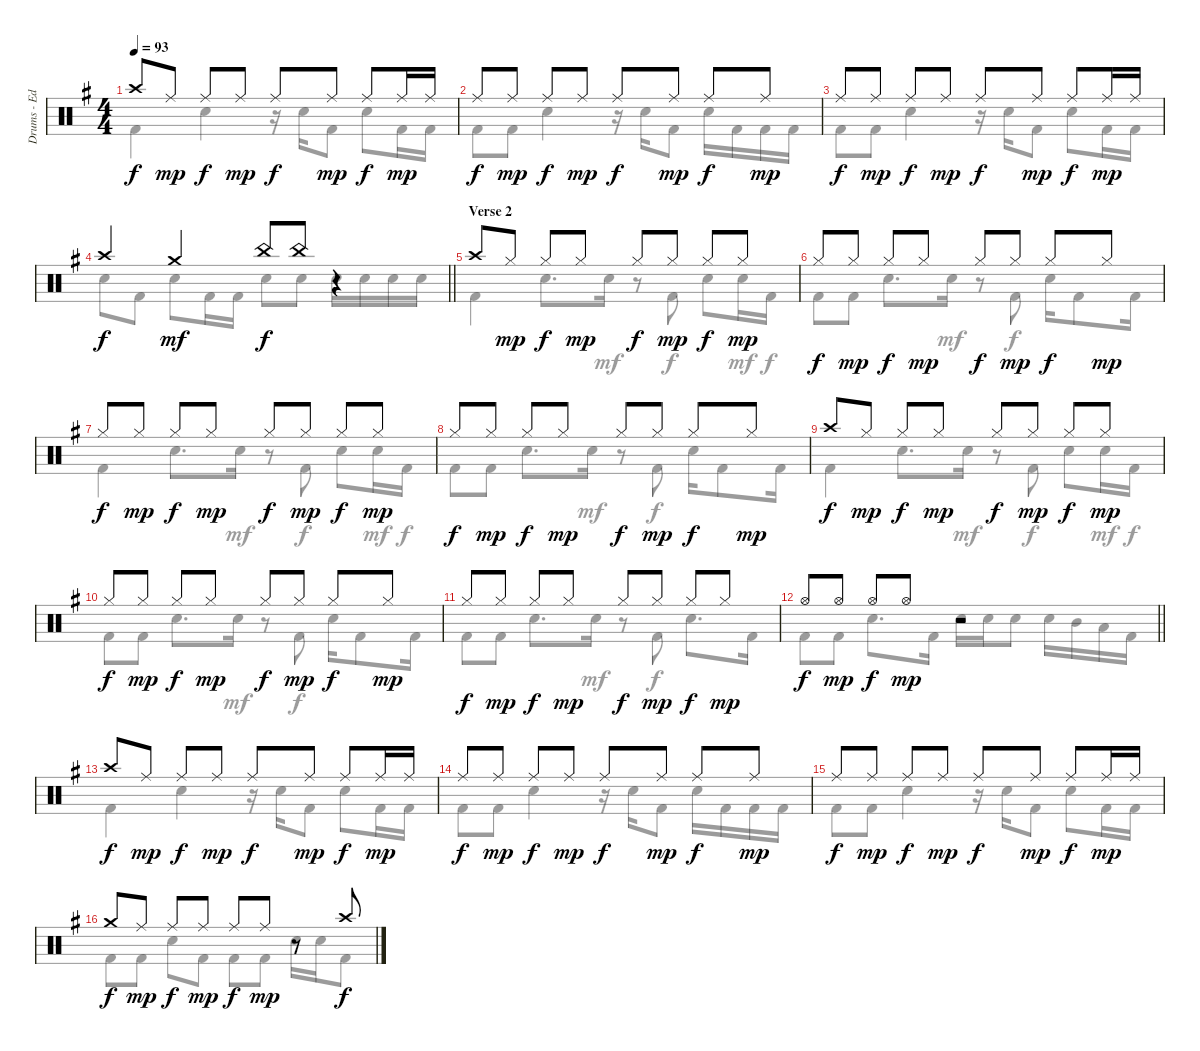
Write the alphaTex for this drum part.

\track ("Drums - Ed Warby" "Drums - Ed") {instrument percussion}
\staff {score}
\articulation defaults
\voice
\ts (4 4)
\tempo 93
\clef neutral
\ks eminor "Crash high (hit)".8{dy f} "Ride (middle)".8{dy mp} "Ride (middle)".8{dy f} "Ride (middle)".8{dy mp} "Ride (middle)".8{dy f} "Ride (middle)".8{dy mp} "Ride (middle)".8{dy f} "Ride (middle)".16{dy mp} "Ride (middle)".16
|
"Ride (middle)".8{dy f} "Ride (middle)".8{dy mp} "Ride (middle)".8{dy f} "Ride (middle)".8{dy mp} "Ride (middle)".8{dy f} "Ride (middle)".8{dy mp} "Ride (middle)".8{dy f} "Ride (middle)".8{dy mp} |
"Ride (middle)".8{dy f} "Ride (middle)".8{dy mp} "Ride (middle)".8{dy f} "Ride (middle)".8{dy mp} "Ride (middle)".8{dy f} "Ride (middle)".8{dy mp} "Ride (middle)".8{dy f} "Ride (middle)".16{dy mp} "Ride (middle)".16 |
\barLineRight lightlight "Crash high (hit)".4{dy f} "Crash medium (hit)".4{dy mf} "China (hit)".8{dy f} "China (hit)".8
r.4 |
\section ("" "Verse 2")
"Crash high (hit)".8 "Hi-Hat (closed)".8{dy mp} "Hi-Hat (closed)".8{dy f} "Hi-Hat (closed)".8{dy mp} "Hi-Hat (closed)".8{dy f} "Hi-Hat (closed)".8{dy mp} "Hi-Hat (closed)".8{dy f} "Hi-Hat (closed)".8{dy mp} |
"Hi-Hat (closed)".8{dy f} "Hi-Hat (closed)".8{dy mp} "Hi-Hat (closed)".8{dy f} "Hi-Hat (closed)".8{dy mp} "Hi-Hat (closed)".8{dy f} "Hi-Hat (closed)".8{dy mp} "Hi-Hat (closed)".8{dy f} "Hi-Hat (closed)".8{dy mp} |
"Hi-Hat (closed)".8{dy f} "Hi-Hat (closed)".8{dy mp} "Hi-Hat (closed)".8{dy f} "Hi-Hat (closed)".8{dy mp} "Hi-Hat (closed)".8{dy f} "Hi-Hat (closed)".8{dy mp} "Hi-Hat (closed)".8{dy f} "Hi-Hat (closed)".8{dy mp} |
"Hi-Hat (closed)".8{dy f} "Hi-Hat (closed)".8{dy mp} "Hi-Hat (closed)".8{dy f} "Hi-Hat (closed)".8{dy mp} "Hi-Hat (closed)".8{dy f} "Hi-Hat (closed)".8{dy mp} "Hi-Hat (closed)".8{dy f} "Hi-Hat (closed)".8{dy mp} |
"Crash high (hit)".8{dy f} "Hi-Hat (closed)".8{dy mp} "Hi-Hat (closed)".8{dy f} "Hi-Hat (closed)".8{dy mp} "Hi-Hat (closed)".8{dy f} "Hi-Hat (closed)".8{dy mp} "Hi-Hat (closed)".8{dy f} "Hi-Hat (closed)".8{dy mp} |
"Hi-Hat (closed)".8{dy f} "Hi-Hat (closed)".8{dy mp} "Hi-Hat (closed)".8{dy f} "Hi-Hat (closed)".8{dy mp} "Hi-Hat (closed)".8{dy f} "Hi-Hat (closed)".8{dy mp} "Hi-Hat (closed)".8{dy f} "Hi-Hat (closed)".8{dy mp} |
"Hi-Hat (closed)".8{dy f} "Hi-Hat (closed)".8{dy mp} "Hi-Hat (closed)".8{dy f} "Hi-Hat (closed)".8{dy mp} "Hi-Hat (closed)".8{dy f} "Hi-Hat (closed)".8{dy mp} "Hi-Hat (closed)".8{dy f} "Hi-Hat (closed)".8{dy mp} |
\barLineRight lightlight "Hi-Hat (open)".8{dy f} "Hi-Hat (open)".8{dy mp} "Hi-Hat (open)".8{dy f} "Hi-Hat (open)".8{dy mp}
r.2 |
"Crash high (hit)".8{dy f} "Ride (middle)".8{dy mp} "Ride (middle)".8{dy f} "Ride (middle)".8{dy mp} "Ride (middle)".8{dy f} "Ride (middle)".8{dy mp} "Ride (middle)".8{dy f} "Ride (middle)".16{dy mp} "Ride (middle)".16 |
"Ride (middle)".8{dy f} "Ride (middle)".8{dy mp} "Ride (middle)".8{dy f} "Ride (middle)".8{dy mp} "Ride (middle)".8{dy f} "Ride (middle)".8{dy mp} "Ride (middle)".8{dy f} "Ride (middle)".8{dy mp} |
"Ride (middle)".8{dy f} "Ride (middle)".8{dy mp} "Ride (middle)".8{dy f} "Ride (middle)".8{dy mp} "Ride (middle)".8{dy f} "Ride (middle)".8{dy mp} "Ride (middle)".8{dy f} "Ride (middle)".16{dy mp} "Ride (middle)".16 |
"Crash medium (hit)".8{dy f} "Ride (middle)".8{dy mp} "Ride (middle)".8{dy f} "Ride (middle)".8{dy mp} "Ride (middle)".8{dy f} "Ride (middle)".8{dy mp} r.8 "Crash high (hit)".8{dy f}
\voice
\clef neutral
\ottava regular
\simile none
\ks eminor "Kick (hit) 2".4{dy f} "Snare (hit) 2".4
r.16 "Snare (hit) 2".16 "Kick (hit) 2".8 "Snare (hit) 2".8 "Kick (hit) 2".16 "Kick (hit) 2".16 |
"Kick (hit) 2".8 "Kick (hit) 2".8 "Snare (hit) 2".4 r.16 "Snare (hit) 2".16 "Kick (hit) 2".8 "Snare (hit) 2".16 "Kick (hit) 2".16 "Kick (hit) 2".16 "Kick (hit) 2".16 |
"Kick (hit) 2".8 "Kick (hit) 2".8 "Snare (hit) 2".4 r.16 "Snare (hit) 2".16 "Kick (hit) 2".8 "Snare (hit) 2".8 "Kick (hit) 2".16 "Kick (hit) 2".16 |
\barLineRight lightlight "Snare (hit) 2".8 "Kick (hit) 2".8 "Snare (hit) 2".8 "Kick (hit) 2".16 "Kick (hit) 2".16 "Snare (hit) 2".8 "Snare (hit) 2".8 "Snare (hit) 2".16 "Snare (hit) 2".16 "Snare (hit) 2".16 "Snare (hit) 2".16
|
"Kick (hit) 2".4 "Electric Snare (hit)".8{d} "Electric Snare (hit)".16{dy mf} r.8 "Kick (hit) 2".8{dy f} "Electric Snare (hit)".8 "Snare (hit)".16{dy mf} "Kick (hit) 2".16{dy f} |
"Kick (hit) 2".8 "Kick (hit) 2".8 "Electric Snare (hit)".8{d} "Electric Snare (hit)".16{dy mf} r.8 "Kick (hit) 2".8{dy f} "Electric Snare (hit)".16 "Kick (hit) 2".8 "Kick (hit) 2".16 |
"Kick (hit) 2".4 "Electric Snare (hit)".8{d} "Electric Snare (hit)".16{dy mf} r.8 "Kick (hit) 2".8{dy f} "Electric Snare (hit)".8 "Snare (hit)".16{dy mf} "Kick (hit) 2".16{dy f} |
"Kick (hit) 2".8 "Kick (hit) 2".8 "Electric Snare (hit)".8{d} "Electric Snare (hit)".16{dy mf} r.8 "Kick (hit) 2".8{dy f} "Electric Snare (hit)".16 "Kick (hit) 2".8 "Kick (hit) 2".16 |
"Kick (hit) 2".4 "Electric Snare (hit)".8{d} "Electric Snare (hit)".16{dy mf} r.8 "Kick (hit) 2".8{dy f} "Electric Snare (hit)".8 "Snare (hit)".16{dy mf} "Kick (hit) 2".16{dy f} |
"Kick (hit) 2".8 "Kick (hit) 2".8 "Electric Snare (hit)".8{d} "Electric Snare (hit)".16{dy mf} r.8 "Kick (hit) 2".8{dy f} "Electric Snare (hit)".16 "Kick (hit) 2".8 "Kick (hit) 2".16 |
"Kick (hit) 2".8 "Kick (hit) 2".8 "Electric Snare (hit)".8{d} "Electric Snare (hit)".16{dy mf} r.8 "Kick (hit) 2".8{dy f} "Electric Snare (hit)".8{d} "Kick (hit) 2".16 |
\barLineRight lightlight "Kick (hit) 2".8 "Kick (hit) 2".8 "Snare (hit) 2".8{d} "Kick (hit) 2".16 "Snare (hit) 2".16 "Snare (hit) 2".16 "Snare (hit) 2".8 "Snare (hit) 2".16 "Mid Tom (hit)".16 "Low Tom (hit)".16 "Kick (hit) 2".16
|
"Kick (hit) 2".4 "Snare (hit) 2".4 r.16 "Snare (hit) 2".16 "Kick (hit) 2".8 "Snare (hit) 2".8 "Kick (hit) 2".16 "Kick (hit) 2".16 |
"Kick (hit) 2".8 "Kick (hit) 2".8 "Snare (hit) 2".4 r.16 "Snare (hit) 2".16 "Kick (hit) 2".8 "Snare (hit) 2".16 "Kick (hit) 2".16 "Kick (hit) 2".16 "Kick (hit) 2".16 |
"Kick (hit) 2".8 "Kick (hit) 2".8 "Snare (hit) 2".4 r.16 "Snare (hit) 2".16 "Kick (hit) 2".8 "Snare (hit) 2".8 "Kick (hit) 2".16 "Kick (hit) 2".16 |
"Kick (hit) 2".8 "Kick (hit) 2".8 "Snare (hit) 2".8 "Kick (hit) 2".8 "Kick (hit) 2".8 "Kick (hit) 2".8 "Snare (hit) 2".16 "Snare (hit) 2".16 "Kick (hit) 2".8
